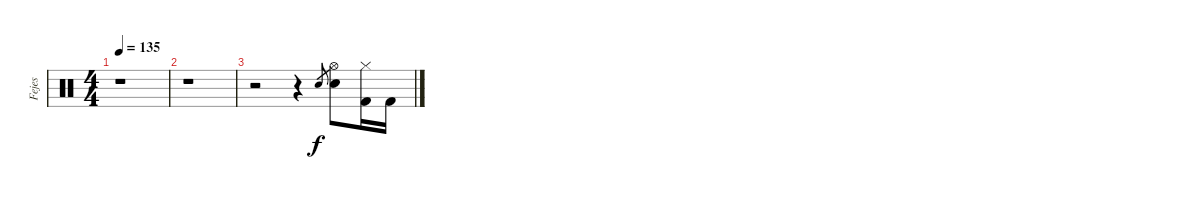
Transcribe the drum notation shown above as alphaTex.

\track ("Fejes" "Fejes") {instrument percussion}
\staff {score}
\articulation defaults
\ts (4 4)
\tempo 135
\clef neutral
\ks c
r.1{dy f} |
r.1 |
r.2 r.4 "Snare (hit) 2".8{gr} ("Hi-Hat (open)" "Snare (hit) 2").8 ("Hi-Hat (closed)" "Kick (hit) 2").16 "Kick (hit) 2".16
